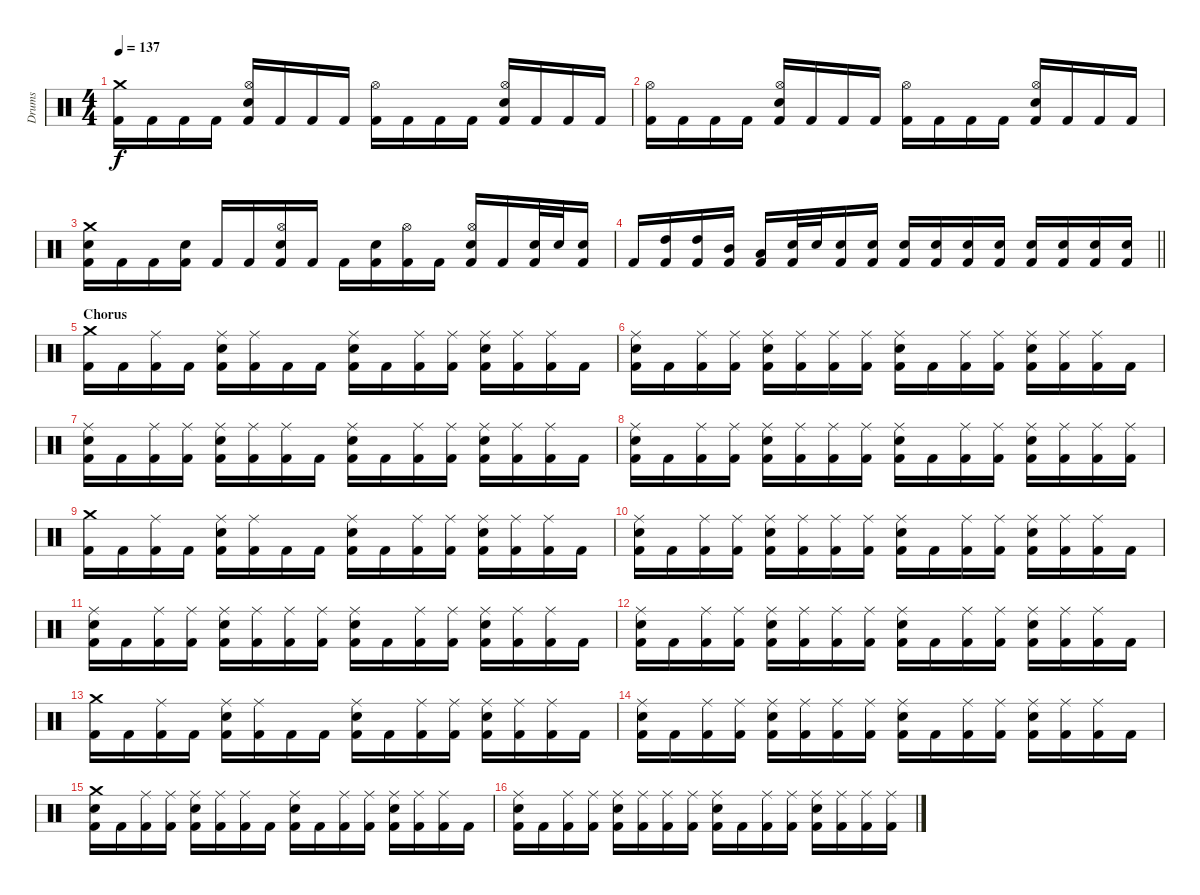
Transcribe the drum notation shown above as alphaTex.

\track ("Drums" "Drums") {instrument percussion}
\staff {score}
\articulation defaults
\ts (4 4)
\tempo 137
\clef neutral
\ks c
("Crash medium (hit)" "Kick (hit) 2").16{dy f} "Kick (hit) 2".16 "Kick (hit) 2".16 "Kick (hit) 2".16 ("Hi-Hat (open)" "Electric Snare (hit)" "Kick (hit) 2").16 "Kick (hit) 2".16 "Kick (hit) 2".16 "Kick (hit) 2".16 ("Hi-Hat (open)" "Kick (hit) 2").16 "Kick (hit) 2".16 "Kick (hit) 2".16 "Kick (hit) 2".16 ("Hi-Hat (open)" "Electric Snare (hit)" "Kick (hit) 2").16 "Kick (hit) 2".16 "Kick (hit) 2".16 "Kick (hit) 2".16 |
("Hi-Hat (open)" "Kick (hit) 2").16 "Kick (hit) 2".16 "Kick (hit) 2".16 "Kick (hit) 2".16 ("Hi-Hat (open)" "Electric Snare (hit)" "Kick (hit) 2").16 "Kick (hit) 2".16 "Kick (hit) 2".16 "Kick (hit) 2".16 ("Hi-Hat (open)" "Kick (hit) 2").16 "Kick (hit) 2".16 "Kick (hit) 2".16 "Kick (hit) 2".16 ("Hi-Hat (open)" "Electric Snare (hit)" "Kick (hit) 2").16 "Kick (hit) 2".16 "Kick (hit) 2".16 "Kick (hit) 2".16 |
("Crash medium (hit)" "Electric Snare (hit)" "Kick (hit) 2").16 "Kick (hit) 2".16 "Kick (hit) 2".16 ("Electric Snare (hit)" "Kick (hit) 2").16 "Kick (hit) 2".16 "Kick (hit) 2".16 ("Hi-Hat (open)" "Electric Snare (hit)" "Kick (hit) 2").16 "Kick (hit) 2".16 "Kick (hit) 2".16 ("Electric Snare (hit)" "Kick (hit) 2").16 ("Hi-Hat (open)" "Kick (hit) 2").16 "Kick (hit) 2".16 ("Hi-Hat (open)" "Electric Snare (hit)" "Kick (hit) 2").16 "Kick (hit) 2".16 ("Electric Snare (hit)" "Kick (hit) 2").32 "Electric Snare (hit)".32 ("Electric Snare (hit)" "Kick (hit) 2").16 |
\barLineRight lightlight "Kick (hit) 2".16
("High Tom (hit)" "Kick (hit) 2").16 ("High Tom (hit)" "Kick (hit) 2").16 ("Mid Tom (hit)" "Kick (hit) 2").16 ("Low Tom (hit)" "Kick (hit) 2").16 ("Electric Snare (hit)" "Kick (hit) 2").32 "Electric Snare (hit)".32 ("Electric Snare (hit)" "Kick (hit) 2").16 ("Electric Snare (hit)" "Kick (hit) 2").16 ("Electric Snare (hit)" "Kick (hit) 2").16 ("Electric Snare (hit)" "Kick (hit) 2").16 ("Electric Snare (hit)" "Kick (hit) 2").16 ("Electric Snare (hit)" "Kick (hit) 2").16 ("Electric Snare (hit)" "Kick (hit) 2").16 ("Electric Snare (hit)" "Kick (hit) 2").16 ("Electric Snare (hit)" "Kick (hit) 2").16 ("Electric Snare (hit)" "Kick (hit) 2").16 |
\section ("" "Chorus")
("Crash medium (hit)" "Kick (hit) 2").16 "Kick (hit) 2".16 ("Ride (middle)" "Kick (hit) 2").16 "Kick (hit) 2".16 ("Ride (middle)" "Electric Snare (hit)" "Kick (hit) 2").16 ("Ride (middle)" "Kick (hit) 2").16 "Kick (hit) 2".16 "Kick (hit) 2".16 ("Ride (middle)" "Electric Snare (hit)" "Kick (hit) 2").16 "Kick (hit) 2".16 ("Ride (middle)" "Kick (hit) 2").16 ("Ride (middle)" "Kick (hit) 2").16 ("Ride (middle)" "Electric Snare (hit)" "Kick (hit) 2").16 ("Ride (middle)" "Kick (hit) 2").16 ("Ride (middle)" "Kick (hit) 2").16 "Kick (hit) 2".16 |
("Ride (middle)" "Electric Snare (hit)" "Kick (hit) 2").16 "Kick (hit) 2".16 ("Ride (middle)" "Kick (hit) 2").16 ("Ride (middle)" "Kick (hit) 2").16 ("Ride (middle)" "Electric Snare (hit)" "Kick (hit) 2").16 ("Ride (middle)" "Kick (hit) 2").16 ("Ride (middle)" "Kick (hit) 2").16 ("Ride (middle)" "Kick (hit) 2").16 ("Ride (middle)" "Electric Snare (hit)" "Kick (hit) 2").16 "Kick (hit) 2".16 ("Ride (middle)" "Kick (hit) 2").16 ("Ride (middle)" "Kick (hit) 2").16 ("Ride (middle)" "Electric Snare (hit)" "Kick (hit) 2").16 ("Ride (middle)" "Kick (hit) 2").16 ("Ride (middle)" "Kick (hit) 2").16 "Kick (hit) 2".16 |
("Ride (middle)" "Electric Snare (hit)" "Kick (hit) 2").16 "Kick (hit) 2".16 ("Ride (middle)" "Kick (hit) 2").16 ("Ride (middle)" "Kick (hit) 2").16 ("Ride (middle)" "Electric Snare (hit)" "Kick (hit) 2").16 ("Ride (middle)" "Kick (hit) 2").16 ("Ride (middle)" "Kick (hit) 2").16 "Kick (hit) 2".16 ("Ride (middle)" "Electric Snare (hit)" "Kick (hit) 2").16 "Kick (hit) 2".16 ("Ride (middle)" "Kick (hit) 2").16 ("Ride (middle)" "Kick (hit) 2").16 ("Ride (middle)" "Electric Snare (hit)" "Kick (hit) 2").16 ("Ride (middle)" "Kick (hit) 2").16 ("Ride (middle)" "Kick (hit) 2").16 "Kick (hit) 2".16 |
("Ride (middle)" "Electric Snare (hit)" "Kick (hit) 2").16 "Kick (hit) 2".16 ("Ride (middle)" "Kick (hit) 2").16 ("Ride (middle)" "Kick (hit) 2").16 ("Ride (middle)" "Electric Snare (hit)" "Kick (hit) 2").16 ("Ride (middle)" "Kick (hit) 2").16 ("Ride (middle)" "Kick (hit) 2").16 ("Ride (middle)" "Kick (hit) 2").16 ("Ride (middle)" "Electric Snare (hit)" "Kick (hit) 2").16 "Kick (hit) 2".16 ("Ride (middle)" "Kick (hit) 2").16 ("Ride (middle)" "Kick (hit) 2").16 ("Ride (middle)" "Electric Snare (hit)" "Kick (hit) 2").16 ("Ride (middle)" "Kick (hit) 2").16 ("Ride (middle)" "Kick (hit) 2").16 ("Ride (middle)" "Kick (hit) 2").16 |
("Crash medium (hit)" "Kick (hit) 2").16 "Kick (hit) 2".16 ("Ride (middle)" "Kick (hit) 2").16 "Kick (hit) 2".16 ("Ride (middle)" "Electric Snare (hit)" "Kick (hit) 2").16 ("Ride (middle)" "Kick (hit) 2").16 "Kick (hit) 2".16 "Kick (hit) 2".16 ("Ride (middle)" "Electric Snare (hit)" "Kick (hit) 2").16 "Kick (hit) 2".16 ("Ride (middle)" "Kick (hit) 2").16 ("Ride (middle)" "Kick (hit) 2").16 ("Ride (middle)" "Electric Snare (hit)" "Kick (hit) 2").16 ("Ride (middle)" "Kick (hit) 2").16 ("Ride (middle)" "Kick (hit) 2").16 "Kick (hit) 2".16 |
("Ride (middle)" "Electric Snare (hit)" "Kick (hit) 2").16 "Kick (hit) 2".16 ("Ride (middle)" "Kick (hit) 2").16 ("Ride (middle)" "Kick (hit) 2").16 ("Ride (middle)" "Electric Snare (hit)" "Kick (hit) 2").16 ("Ride (middle)" "Kick (hit) 2").16 ("Ride (middle)" "Kick (hit) 2").16 ("Ride (middle)" "Kick (hit) 2").16 ("Ride (middle)" "Electric Snare (hit)" "Kick (hit) 2").16 "Kick (hit) 2".16 ("Ride (middle)" "Kick (hit) 2").16 ("Ride (middle)" "Kick (hit) 2").16 ("Ride (middle)" "Electric Snare (hit)" "Kick (hit) 2").16 ("Ride (middle)" "Kick (hit) 2").16 ("Ride (middle)" "Kick (hit) 2").16 "Kick (hit) 2".16 |
("Ride (middle)" "Electric Snare (hit)" "Kick (hit) 2").16 "Kick (hit) 2".16 ("Ride (middle)" "Kick (hit) 2").16 ("Ride (middle)" "Kick (hit) 2").16 ("Ride (middle)" "Electric Snare (hit)" "Kick (hit) 2").16 ("Ride (middle)" "Kick (hit) 2").16 ("Ride (middle)" "Kick (hit) 2").16 ("Ride (middle)" "Kick (hit) 2").16 ("Ride (middle)" "Electric Snare (hit)" "Kick (hit) 2").16 "Kick (hit) 2".16 ("Ride (middle)" "Kick (hit) 2").16 ("Ride (middle)" "Kick (hit) 2").16 ("Ride (middle)" "Electric Snare (hit)" "Kick (hit) 2").16 ("Ride (middle)" "Kick (hit) 2").16 ("Ride (middle)" "Kick (hit) 2").16 "Kick (hit) 2".16 |
("Ride (middle)" "Electric Snare (hit)" "Kick (hit) 2").16 "Kick (hit) 2".16 ("Ride (middle)" "Kick (hit) 2").16 ("Ride (middle)" "Kick (hit) 2").16 ("Ride (middle)" "Electric Snare (hit)" "Kick (hit) 2").16 ("Ride (middle)" "Kick (hit) 2").16 ("Ride (middle)" "Kick (hit) 2").16 ("Ride (middle)" "Kick (hit) 2").16 ("Ride (middle)" "Electric Snare (hit)" "Kick (hit) 2").16 "Kick (hit) 2".16 ("Ride (middle)" "Kick (hit) 2").16 ("Ride (middle)" "Kick (hit) 2").16 ("Ride (middle)" "Electric Snare (hit)" "Kick (hit) 2").16 ("Ride (middle)" "Kick (hit) 2").16 ("Ride (middle)" "Kick (hit) 2").16 "Kick (hit) 2".16 |
("Crash medium (hit)" "Kick (hit) 2").16 "Kick (hit) 2".16 ("Ride (middle)" "Kick (hit) 2").16 "Kick (hit) 2".16 ("Ride (middle)" "Electric Snare (hit)" "Kick (hit) 2").16 ("Ride (middle)" "Kick (hit) 2").16 "Kick (hit) 2".16 "Kick (hit) 2".16 ("Ride (middle)" "Electric Snare (hit)" "Kick (hit) 2").16 "Kick (hit) 2".16 ("Ride (middle)" "Kick (hit) 2").16 ("Ride (middle)" "Kick (hit) 2").16 ("Ride (middle)" "Electric Snare (hit)" "Kick (hit) 2").16 ("Ride (middle)" "Kick (hit) 2").16 ("Ride (middle)" "Kick (hit) 2").16 "Kick (hit) 2".16 |
("Ride (middle)" "Electric Snare (hit)" "Kick (hit) 2").16 "Kick (hit) 2".16 ("Ride (middle)" "Kick (hit) 2").16 ("Ride (middle)" "Kick (hit) 2").16 ("Ride (middle)" "Electric Snare (hit)" "Kick (hit) 2").16 ("Ride (middle)" "Kick (hit) 2").16 ("Ride (middle)" "Kick (hit) 2").16 ("Ride (middle)" "Kick (hit) 2").16 ("Ride (middle)" "Electric Snare (hit)" "Kick (hit) 2").16 "Kick (hit) 2".16 ("Ride (middle)" "Kick (hit) 2").16 ("Ride (middle)" "Kick (hit) 2").16 ("Ride (middle)" "Electric Snare (hit)" "Kick (hit) 2").16 ("Ride (middle)" "Kick (hit) 2").16 ("Ride (middle)" "Kick (hit) 2").16 "Kick (hit) 2".16 |
("Crash medium (hit)" "Electric Snare (hit)" "Kick (hit) 2").16 "Kick (hit) 2".16 ("Ride (middle)" "Kick (hit) 2").16 ("Ride (middle)" "Kick (hit) 2").16 ("Ride (middle)" "Electric Snare (hit)" "Kick (hit) 2").16 ("Ride (middle)" "Kick (hit) 2").16 ("Ride (middle)" "Kick (hit) 2").16 "Kick (hit) 2".16 ("Ride (middle)" "Electric Snare (hit)" "Kick (hit) 2").16 "Kick (hit) 2".16 ("Ride (middle)" "Kick (hit) 2").16 ("Ride (middle)" "Kick (hit) 2").16 ("Ride (middle)" "Electric Snare (hit)" "Kick (hit) 2").16 ("Ride (middle)" "Kick (hit) 2").16 ("Ride (middle)" "Kick (hit) 2").16 "Kick (hit) 2".16 |
("Ride (middle)" "Electric Snare (hit)" "Kick (hit) 2").16 "Kick (hit) 2".16 ("Ride (middle)" "Kick (hit) 2").16 ("Ride (middle)" "Kick (hit) 2").16 ("Ride (middle)" "Electric Snare (hit)" "Kick (hit) 2").16 ("Ride (middle)" "Kick (hit) 2").16 ("Ride (middle)" "Kick (hit) 2").16 ("Ride (middle)" "Kick (hit) 2").16 ("Ride (middle)" "Electric Snare (hit)" "Kick (hit) 2").16 "Kick (hit) 2".16 ("Ride (middle)" "Kick (hit) 2").16 ("Ride (middle)" "Kick (hit) 2").16 ("Ride (middle)" "Electric Snare (hit)" "Kick (hit) 2").16 ("Ride (middle)" "Kick (hit) 2").16 ("Ride (middle)" "Kick (hit) 2").16 ("Ride (middle)" "Kick (hit) 2").16
